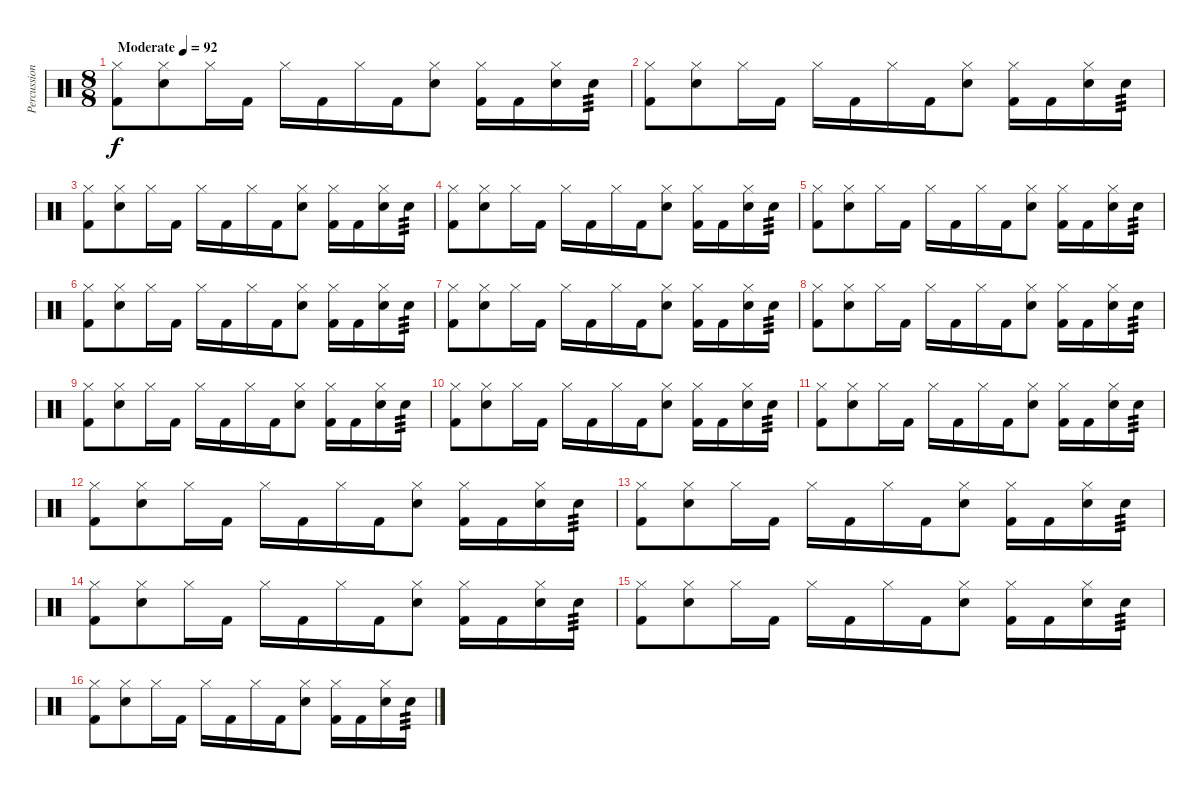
\track ("Percussion" "Percussion") {instrument percussion}
\staff {score}
\articulation defaults
\ts (8 8)
\tempo (92 "Moderate")
\clef neutral
\ks c
("Hi-Hat (closed)" "Kick (hit) 2").8{dy f} ("Hi-Hat (closed)" "Snare (hit) 2").8 "Hi-Hat (closed)".16 "Kick (hit) 2".16 "Hi-Hat (closed)".16 "Kick (hit) 2".16 "Hi-Hat (closed)".16 "Kick (hit) 2".16 ("Hi-Hat (closed)" "Snare (hit) 2").8 ("Hi-Hat (closed)" "Kick (hit) 2").16 "Kick (hit) 2".16 ("Hi-Hat (closed)" "Snare (hit) 2").16 "Snare (hit) 2".16{tp 3} |
("Hi-Hat (closed)" "Kick (hit) 2").8 ("Hi-Hat (closed)" "Snare (hit) 2").8 "Hi-Hat (closed)".16 "Kick (hit) 2".16 "Hi-Hat (closed)".16 "Kick (hit) 2".16 "Hi-Hat (closed)".16 "Kick (hit) 2".16 ("Hi-Hat (closed)" "Snare (hit) 2").8 ("Hi-Hat (closed)" "Kick (hit) 2").16 "Kick (hit) 2".16 ("Hi-Hat (closed)" "Snare (hit) 2").16 "Snare (hit) 2".16{tp 3} |
("Hi-Hat (closed)" "Kick (hit) 2").8 ("Hi-Hat (closed)" "Snare (hit) 2").8 "Hi-Hat (closed)".16 "Kick (hit) 2".16 "Hi-Hat (closed)".16 "Kick (hit) 2".16 "Hi-Hat (closed)".16 "Kick (hit) 2".16 ("Hi-Hat (closed)" "Snare (hit) 2").8 ("Hi-Hat (closed)" "Kick (hit) 2").16 "Kick (hit) 2".16 ("Hi-Hat (closed)" "Snare (hit) 2").16 "Snare (hit) 2".16{tp 3} |
("Hi-Hat (closed)" "Kick (hit) 2").8 ("Hi-Hat (closed)" "Snare (hit) 2").8 "Hi-Hat (closed)".16 "Kick (hit) 2".16 "Hi-Hat (closed)".16 "Kick (hit) 2".16 "Hi-Hat (closed)".16 "Kick (hit) 2".16 ("Hi-Hat (closed)" "Snare (hit) 2").8 ("Hi-Hat (closed)" "Kick (hit) 2").16 "Kick (hit) 2".16 ("Hi-Hat (closed)" "Snare (hit) 2").16 "Snare (hit) 2".16{tp 3} |
("Hi-Hat (closed)" "Kick (hit) 2").8 ("Hi-Hat (closed)" "Snare (hit) 2").8 "Hi-Hat (closed)".16 "Kick (hit) 2".16 "Hi-Hat (closed)".16 "Kick (hit) 2".16 "Hi-Hat (closed)".16 "Kick (hit) 2".16 ("Hi-Hat (closed)" "Snare (hit) 2").8 ("Hi-Hat (closed)" "Kick (hit) 2").16 "Kick (hit) 2".16 ("Hi-Hat (closed)" "Snare (hit) 2").16 "Snare (hit) 2".16{tp 3} |
("Hi-Hat (closed)" "Kick (hit) 2").8 ("Hi-Hat (closed)" "Snare (hit) 2").8 "Hi-Hat (closed)".16 "Kick (hit) 2".16 "Hi-Hat (closed)".16 "Kick (hit) 2".16 "Hi-Hat (closed)".16 "Kick (hit) 2".16 ("Hi-Hat (closed)" "Snare (hit) 2").8 ("Hi-Hat (closed)" "Kick (hit) 2").16 "Kick (hit) 2".16 ("Hi-Hat (closed)" "Snare (hit) 2").16 "Snare (hit) 2".16{tp 3} |
("Hi-Hat (closed)" "Kick (hit) 2").8 ("Hi-Hat (closed)" "Snare (hit) 2").8 "Hi-Hat (closed)".16 "Kick (hit) 2".16 "Hi-Hat (closed)".16 "Kick (hit) 2".16 "Hi-Hat (closed)".16 "Kick (hit) 2".16 ("Hi-Hat (closed)" "Snare (hit) 2").8 ("Hi-Hat (closed)" "Kick (hit) 2").16 "Kick (hit) 2".16 ("Hi-Hat (closed)" "Snare (hit) 2").16 "Snare (hit) 2".16{tp 3} |
("Hi-Hat (closed)" "Kick (hit) 2").8 ("Hi-Hat (closed)" "Snare (hit) 2").8 "Hi-Hat (closed)".16 "Kick (hit) 2".16 "Hi-Hat (closed)".16 "Kick (hit) 2".16 "Hi-Hat (closed)".16 "Kick (hit) 2".16 ("Hi-Hat (closed)" "Snare (hit) 2").8 ("Hi-Hat (closed)" "Kick (hit) 2").16 "Kick (hit) 2".16 ("Hi-Hat (closed)" "Snare (hit) 2").16 "Snare (hit) 2".16{tp 3} |
("Hi-Hat (closed)" "Kick (hit) 2").8 ("Hi-Hat (closed)" "Snare (hit) 2").8 "Hi-Hat (closed)".16 "Kick (hit) 2".16 "Hi-Hat (closed)".16 "Kick (hit) 2".16 "Hi-Hat (closed)".16 "Kick (hit) 2".16 ("Hi-Hat (closed)" "Snare (hit) 2").8 ("Hi-Hat (closed)" "Kick (hit) 2").16 "Kick (hit) 2".16 ("Hi-Hat (closed)" "Snare (hit) 2").16 "Snare (hit) 2".16{tp 3} |
("Hi-Hat (closed)" "Kick (hit) 2").8 ("Hi-Hat (closed)" "Snare (hit) 2").8 "Hi-Hat (closed)".16 "Kick (hit) 2".16 "Hi-Hat (closed)".16 "Kick (hit) 2".16 "Hi-Hat (closed)".16 "Kick (hit) 2".16 ("Hi-Hat (closed)" "Snare (hit) 2").8 ("Hi-Hat (closed)" "Kick (hit) 2").16 "Kick (hit) 2".16 ("Hi-Hat (closed)" "Snare (hit) 2").16 "Snare (hit) 2".16{tp 3} |
("Hi-Hat (closed)" "Kick (hit) 2").8 ("Hi-Hat (closed)" "Snare (hit) 2").8 "Hi-Hat (closed)".16 "Kick (hit) 2".16 "Hi-Hat (closed)".16 "Kick (hit) 2".16 "Hi-Hat (closed)".16 "Kick (hit) 2".16 ("Hi-Hat (closed)" "Snare (hit) 2").8 ("Hi-Hat (closed)" "Kick (hit) 2").16 "Kick (hit) 2".16 ("Hi-Hat (closed)" "Snare (hit) 2").16 "Snare (hit) 2".16{tp 3} |
("Hi-Hat (closed)" "Kick (hit) 2").8 ("Hi-Hat (closed)" "Snare (hit) 2").8 "Hi-Hat (closed)".16 "Kick (hit) 2".16 "Hi-Hat (closed)".16 "Kick (hit) 2".16 "Hi-Hat (closed)".16 "Kick (hit) 2".16 ("Hi-Hat (closed)" "Snare (hit) 2").8 ("Hi-Hat (closed)" "Kick (hit) 2").16 "Kick (hit) 2".16 ("Hi-Hat (closed)" "Snare (hit) 2").16 "Snare (hit) 2".16{tp 3} |
("Hi-Hat (closed)" "Kick (hit) 2").8 ("Hi-Hat (closed)" "Snare (hit) 2").8 "Hi-Hat (closed)".16 "Kick (hit) 2".16 "Hi-Hat (closed)".16 "Kick (hit) 2".16 "Hi-Hat (closed)".16 "Kick (hit) 2".16 ("Hi-Hat (closed)" "Snare (hit) 2").8 ("Hi-Hat (closed)" "Kick (hit) 2").16 "Kick (hit) 2".16 ("Hi-Hat (closed)" "Snare (hit) 2").16 "Snare (hit) 2".16{tp 3} |
("Hi-Hat (closed)" "Kick (hit) 2").8 ("Hi-Hat (closed)" "Snare (hit) 2").8 "Hi-Hat (closed)".16 "Kick (hit) 2".16 "Hi-Hat (closed)".16 "Kick (hit) 2".16 "Hi-Hat (closed)".16 "Kick (hit) 2".16 ("Hi-Hat (closed)" "Snare (hit) 2").8 ("Hi-Hat (closed)" "Kick (hit) 2").16 "Kick (hit) 2".16 ("Hi-Hat (closed)" "Snare (hit) 2").16 "Snare (hit) 2".16{tp 3} |
("Hi-Hat (closed)" "Kick (hit) 2").8 ("Hi-Hat (closed)" "Snare (hit) 2").8 "Hi-Hat (closed)".16 "Kick (hit) 2".16 "Hi-Hat (closed)".16 "Kick (hit) 2".16 "Hi-Hat (closed)".16 "Kick (hit) 2".16 ("Hi-Hat (closed)" "Snare (hit) 2").8 ("Hi-Hat (closed)" "Kick (hit) 2").16 "Kick (hit) 2".16 ("Hi-Hat (closed)" "Snare (hit) 2").16 "Snare (hit) 2".16{tp 3} |
("Hi-Hat (closed)" "Kick (hit) 2").8 ("Hi-Hat (closed)" "Snare (hit) 2").8 "Hi-Hat (closed)".16 "Kick (hit) 2".16 "Hi-Hat (closed)".16 "Kick (hit) 2".16 "Hi-Hat (closed)".16 "Kick (hit) 2".16 ("Hi-Hat (closed)" "Snare (hit) 2").8 ("Hi-Hat (closed)" "Kick (hit) 2").16 "Kick (hit) 2".16 ("Hi-Hat (closed)" "Snare (hit) 2").16 "Snare (hit) 2".16{tp 3}
